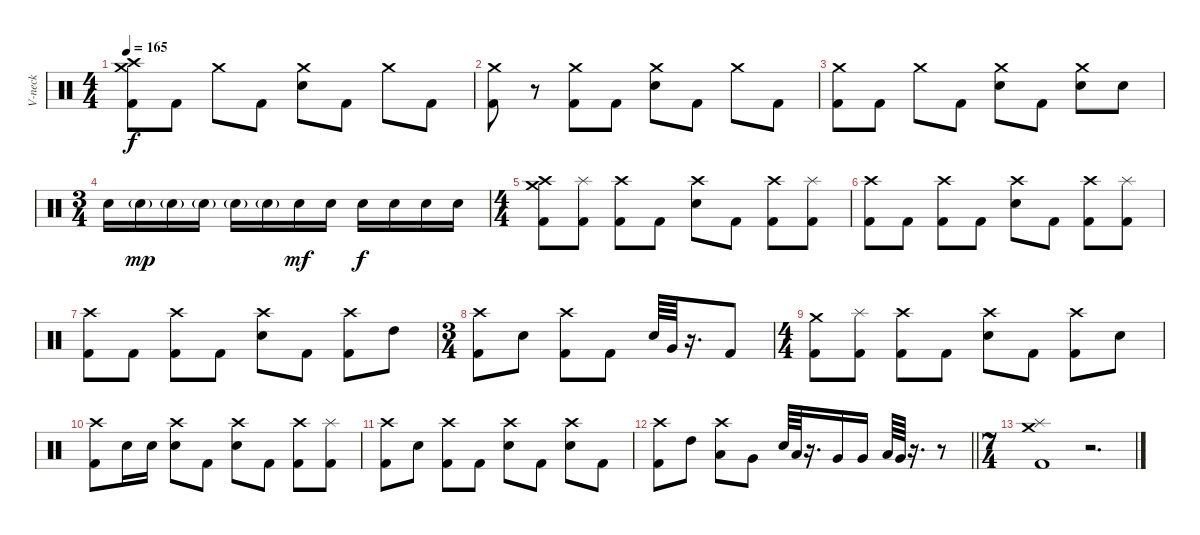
\track ("V-neck" "V-neck") {instrument percussion}
\staff {score}
\articulation defaults
\ts (4 4)
\tempo 165
\clef neutral
\ks c
("Crash high (hit)" "Crash medium (hit)" "Kick (hit) 2").8{dy f} "Kick (hit) 2".8 "Crash medium (hit)".8 "Kick (hit) 2".8 ("Crash medium (hit)" "Electric Snare (hit)").8 "Kick (hit) 2".8 "Crash medium (hit)".8 "Kick (hit) 2".8 |
("Crash medium (hit)" "Kick (hit) 2").8 r.8 ("Crash medium (hit)" "Kick (hit) 2").8 "Kick (hit) 2".8 ("Crash medium (hit)" "Electric Snare (hit)").8 "Kick (hit) 2".8 "Crash medium (hit)".8 "Kick (hit) 2".8 |
("Crash medium (hit)" "Kick (hit) 2").8 "Kick (hit) 2".8 "Crash medium (hit)".8 "Kick (hit) 2".8 ("Crash medium (hit)" "Electric Snare (hit)").8 "Kick (hit) 2".8 ("Crash medium (hit)" "Electric Snare (hit)").8 "Electric Snare (hit)".8 |
\ts (3 4)
"Electric Snare (hit)".16 "Electric Snare (hit)"{g}.16{dy mp volume 16} "Electric Snare (hit)"{g}.16 "Electric Snare (hit)"{g}.16 "Electric Snare (hit)"{g}.16 "Electric Snare (hit)"{g}.16 "Electric Snare (hit)".16{dy mf} "Electric Snare (hit)".16 "Electric Snare (hit)".16{dy f} "Electric Snare (hit)".16 "Electric Snare (hit)".16 "Electric Snare (hit)".16 |
\ts (4 4)
("Crash medium (hit)" "Crash high (hit)" "Kick (hit) 2").8 ("Splash (hit)" "Kick (hit) 2").8 ("Crash high (hit)" "Kick (hit) 2").8 "Kick (hit) 2".8 ("Crash high (hit)" "Electric Snare (hit)").8 "Kick (hit) 2".8 ("Crash high (hit)" "Kick (hit) 2").8 ("Splash (hit)" "Kick (hit) 2").8 |
("Crash high (hit)" "Kick (hit) 2").8 "Kick (hit) 2".8 ("Crash high (hit)" "Kick (hit) 2").8 "Kick (hit) 2".8 ("Crash high (hit)" "Electric Snare (hit)").8 "Kick (hit) 2".8 ("Crash high (hit)" "Kick (hit) 2").8 ("Splash (hit)" "Kick (hit) 2").8 |
("Crash high (hit)" "Kick (hit) 2").8 "Kick (hit) 2".8 ("Crash high (hit)" "Kick (hit) 2").8 "Kick (hit) 2".8 ("Crash high (hit)" "Electric Snare (hit)").8 "Kick (hit) 2".8 ("Crash high (hit)" "Kick (hit) 2").8 "High Tom (hit)".8 |
\ts (3 4)
("Crash high (hit)" "Kick (hit) 2").8 "Electric Snare (hit)".8 ("Crash high (hit)" "Kick (hit) 2").8 "Kick (hit) 2".8 "Electric Snare (hit)".64 "Very Low Tom (hit)".64 r.16{d} "Kick (hit) 2".8 |
\ts (4 4)
("Crash medium (hit)" "Kick (hit) 2").8 ("Splash (hit)" "Kick (hit) 2").8 ("Crash high (hit)" "Kick (hit) 2").8 "Kick (hit) 2".8 ("Crash high (hit)" "Electric Snare (hit)").8 "Kick (hit) 2".8 ("Crash high (hit)" "Kick (hit) 2").8 "Electric Snare (hit)".8 |
("Crash high (hit)" "Kick (hit) 2").8 "Electric Snare (hit)".16 "Electric Snare (hit)".16 ("Crash high (hit)" "Electric Snare (hit)").8 "Kick (hit) 2".8 ("Crash high (hit)" "Electric Snare (hit)").8 "Kick (hit) 2".8 ("Crash high (hit)" "Kick (hit) 2").8 ("Splash (hit)" "Kick (hit) 2").8 |
("Crash high (hit)" "Kick (hit) 2").8 "Electric Snare (hit)".8 ("Crash high (hit)" "Kick (hit) 2").8 "Kick (hit) 2".8 ("Crash high (hit)" "Electric Snare (hit)").8 "Kick (hit) 2".8 ("Crash high (hit)" "Electric Snare (hit)").8 "Kick (hit) 2".8 |
\barLineRight lightlight
("Crash high (hit)" "Kick (hit) 2").8 "High Tom (hit)".8 ("Crash high (hit)" "Low Tom (hit)").8 "Very Low Tom (hit)".8 "Electric Snare (hit)".64 "Low Tom (hit)".64 r.16{d} "Very Low Tom (hit)".16 "Very Low Tom (hit)".16 "Low Floor Tom (hit)".64 "Very Low Tom (hit)".64 r.16{d} r.8 |
\ts (7 4)
\section ("" "")
("Crash medium (hit)" "Splash (hit)" "Kick (hit) 2").1 r.2{d}
